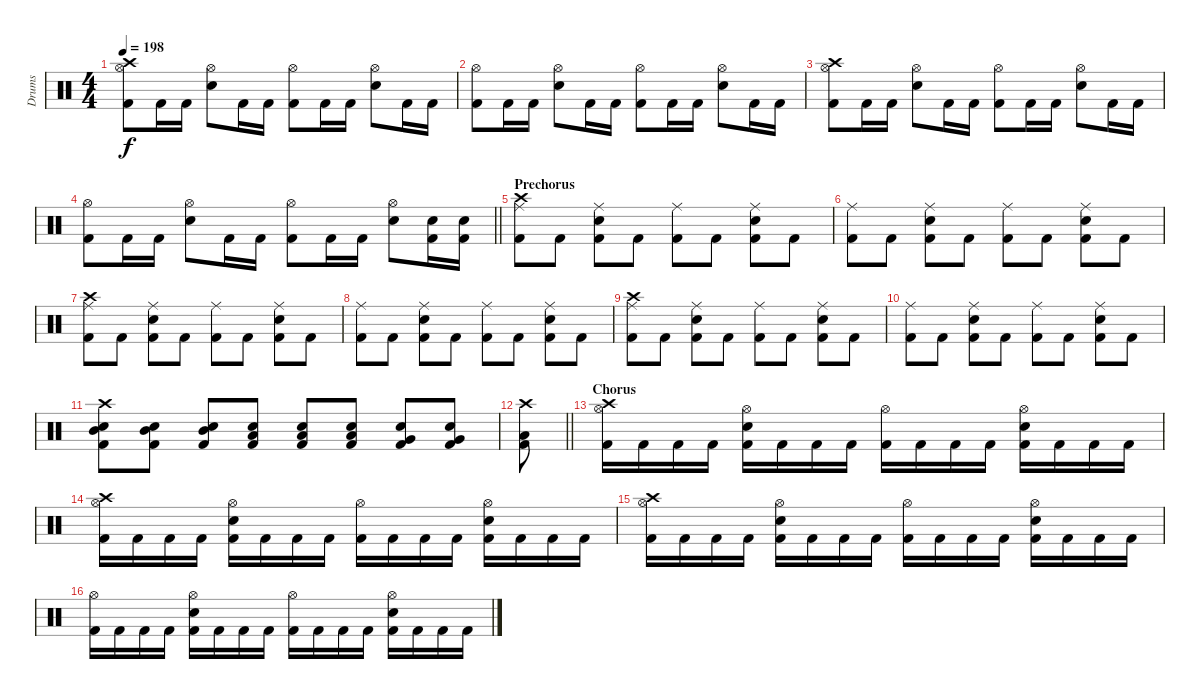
\track ("Drums" "Drums") {instrument percussion}
\staff {score}
\articulation defaults
\ts (4 4)
\tempo 198
\clef neutral
\ks c
("Crash high (hit)" "Hi-Hat (open)" "Kick (hit) 2").8{dy f} "Kick (hit) 2".16 "Kick (hit) 2".16 ("Hi-Hat (open)" "Snare (hit) 2").8 "Kick (hit) 2".16 "Kick (hit) 2".16 ("Hi-Hat (open)" "Kick (hit) 2").8 "Kick (hit) 2".16 "Kick (hit) 2".16 ("Hi-Hat (open)" "Snare (hit) 2").8 "Kick (hit) 2".16 "Kick (hit) 2".16 |
("Hi-Hat (open)" "Kick (hit) 2").8 "Kick (hit) 2".16 "Kick (hit) 2".16 ("Hi-Hat (open)" "Snare (hit) 2").8 "Kick (hit) 2".16 "Kick (hit) 2".16 ("Hi-Hat (open)" "Kick (hit) 2").8 "Kick (hit) 2".16 "Kick (hit) 2".16 ("Hi-Hat (open)" "Snare (hit) 2").8 "Kick (hit) 2".16 "Kick (hit) 2".16 |
("Crash high (hit)" "Hi-Hat (open)" "Kick (hit) 2").8 "Kick (hit) 2".16 "Kick (hit) 2".16 ("Hi-Hat (open)" "Snare (hit) 2").8 "Kick (hit) 2".16 "Kick (hit) 2".16 ("Hi-Hat (open)" "Kick (hit) 2").8 "Kick (hit) 2".16 "Kick (hit) 2".16 ("Hi-Hat (open)" "Snare (hit) 2").8 "Kick (hit) 2".16 "Kick (hit) 2".16 |
\barLineRight lightlight
("Hi-Hat (open)" "Kick (hit) 2").8 "Kick (hit) 2".16 "Kick (hit) 2".16 ("Hi-Hat (open)" "Snare (hit) 2").8 "Kick (hit) 2".16 "Kick (hit) 2".16 ("Hi-Hat (open)" "Kick (hit) 2").8 "Kick (hit) 2".16 "Kick (hit) 2".16 ("Hi-Hat (open)" "Snare (hit) 2").8 ("Snare (hit) 2" "Kick (hit) 2").16 ("Snare (hit) 2" "Kick (hit) 2").16 |
\section ("" "Prechorus")
("Crash high (hit)" "Ride (middle)" "Kick (hit) 2").8 "Kick (hit) 2".8 ("Ride (middle)" "Snare (hit) 2" "Kick (hit) 2").8 "Kick (hit) 2".8 ("Ride (middle)" "Kick (hit) 2").8 "Kick (hit) 2".8 ("Ride (middle)" "Snare (hit) 2" "Kick (hit) 2").8 "Kick (hit) 2".8 |
("Ride (middle)" "Kick (hit) 2").8 "Kick (hit) 2".8 ("Ride (middle)" "Snare (hit) 2" "Kick (hit) 2").8 "Kick (hit) 2".8 ("Ride (middle)" "Kick (hit) 2").8 "Kick (hit) 2".8 ("Ride (middle)" "Snare (hit) 2" "Kick (hit) 2").8 "Kick (hit) 2".8 |
("Crash high (hit)" "Ride (middle)" "Kick (hit) 2").8 "Kick (hit) 2".8 ("Ride (middle)" "Snare (hit) 2" "Kick (hit) 2").8 "Kick (hit) 2".8 ("Ride (middle)" "Kick (hit) 2").8 "Kick (hit) 2".8 ("Ride (middle)" "Snare (hit) 2" "Kick (hit) 2").8 "Kick (hit) 2".8 |
("Ride (middle)" "Kick (hit) 2").8 "Kick (hit) 2".8 ("Ride (middle)" "Snare (hit) 2" "Kick (hit) 2").8 "Kick (hit) 2".8 ("Ride (middle)" "Kick (hit) 2").8 "Kick (hit) 2".8 ("Ride (middle)" "Snare (hit) 2" "Kick (hit) 2").8 "Kick (hit) 2".8 |
("Crash high (hit)" "Ride (middle)" "Kick (hit) 2").8 "Kick (hit) 2".8 ("Ride (middle)" "Snare (hit) 2" "Kick (hit) 2").8 "Kick (hit) 2".8 ("Ride (middle)" "Kick (hit) 2").8 "Kick (hit) 2".8 ("Ride (middle)" "Snare (hit) 2" "Kick (hit) 2").8 "Kick (hit) 2".8 |
("Ride (middle)" "Kick (hit) 2").8 "Kick (hit) 2".8 ("Ride (middle)" "Snare (hit) 2" "Kick (hit) 2").8 "Kick (hit) 2".8 ("Ride (middle)" "Kick (hit) 2").8 "Kick (hit) 2".8 ("Ride (middle)" "Snare (hit) 2" "Kick (hit) 2").8 "Kick (hit) 2".8 |
("Crash high (hit)" "Mid Tom (hit)" "Snare (hit) 2" "Kick (hit) 2").8 ("Mid Tom (hit)" "Snare (hit) 2" "Kick (hit) 2").8 ("Mid Tom (hit)" "Snare (hit) 2" "Kick (hit) 2").8 ("Low Tom (hit)" "Snare (hit) 2" "Kick (hit) 2").8 ("Low Tom (hit)" "Snare (hit) 2" "Kick (hit) 2").8 ("Low Tom (hit)" "Snare (hit) 2" "Kick (hit) 2").8 ("Very Low Tom (hit)" "Snare (hit) 2" "Kick (hit) 2").8 ("Very Low Tom (hit)" "Snare (hit) 2" "Kick (hit) 2").8 |
\barLineRight lightlight
("Crash high (hit)" "Low Floor Tom (hit)" "Kick (hit) 2").8 |
\section ("" "Chorus")
("Crash high (hit)" "Hi-Hat (open)" "Kick (hit) 2").16 "Kick (hit) 2".16 "Kick (hit) 2".16 "Kick (hit) 2".16 ("Hi-Hat (open)" "Snare (hit) 2" "Kick (hit) 2").16 "Kick (hit) 2".16 "Kick (hit) 2".16 "Kick (hit) 2".16 ("Hi-Hat (open)" "Kick (hit) 2").16 "Kick (hit) 2".16 "Kick (hit) 2".16 "Kick (hit) 2".16 ("Hi-Hat (open)" "Snare (hit) 2" "Kick (hit) 2").16 "Kick (hit) 2".16 "Kick (hit) 2".16 "Kick (hit) 2".16 |
("Crash high (hit)" "Hi-Hat (open)" "Kick (hit) 2").16 "Kick (hit) 2".16 "Kick (hit) 2".16 "Kick (hit) 2".16 ("Hi-Hat (open)" "Snare (hit) 2" "Kick (hit) 2").16 "Kick (hit) 2".16 "Kick (hit) 2".16 "Kick (hit) 2".16 ("Hi-Hat (open)" "Kick (hit) 2").16 "Kick (hit) 2".16 "Kick (hit) 2".16 "Kick (hit) 2".16 ("Hi-Hat (open)" "Snare (hit) 2" "Kick (hit) 2").16 "Kick (hit) 2".16 "Kick (hit) 2".16 "Kick (hit) 2".16 |
("Crash high (hit)" "Hi-Hat (open)" "Kick (hit) 2").16 "Kick (hit) 2".16 "Kick (hit) 2".16 "Kick (hit) 2".16 ("Hi-Hat (open)" "Snare (hit) 2" "Kick (hit) 2").16 "Kick (hit) 2".16 "Kick (hit) 2".16 "Kick (hit) 2".16 ("Hi-Hat (open)" "Kick (hit) 2").16 "Kick (hit) 2".16 "Kick (hit) 2".16 "Kick (hit) 2".16 ("Hi-Hat (open)" "Snare (hit) 2" "Kick (hit) 2").16 "Kick (hit) 2".16 "Kick (hit) 2".16 "Kick (hit) 2".16 |
("Hi-Hat (open)" "Kick (hit) 2").16 "Kick (hit) 2".16 "Kick (hit) 2".16 "Kick (hit) 2".16 ("Hi-Hat (open)" "Snare (hit) 2" "Kick (hit) 2").16 "Kick (hit) 2".16 "Kick (hit) 2".16 "Kick (hit) 2".16 ("Hi-Hat (open)" "Kick (hit) 2").16 "Kick (hit) 2".16 "Kick (hit) 2".16 "Kick (hit) 2".16 ("Hi-Hat (open)" "Snare (hit) 2" "Kick (hit) 2").16 "Kick (hit) 2".16 "Kick (hit) 2".16 "Kick (hit) 2".16
